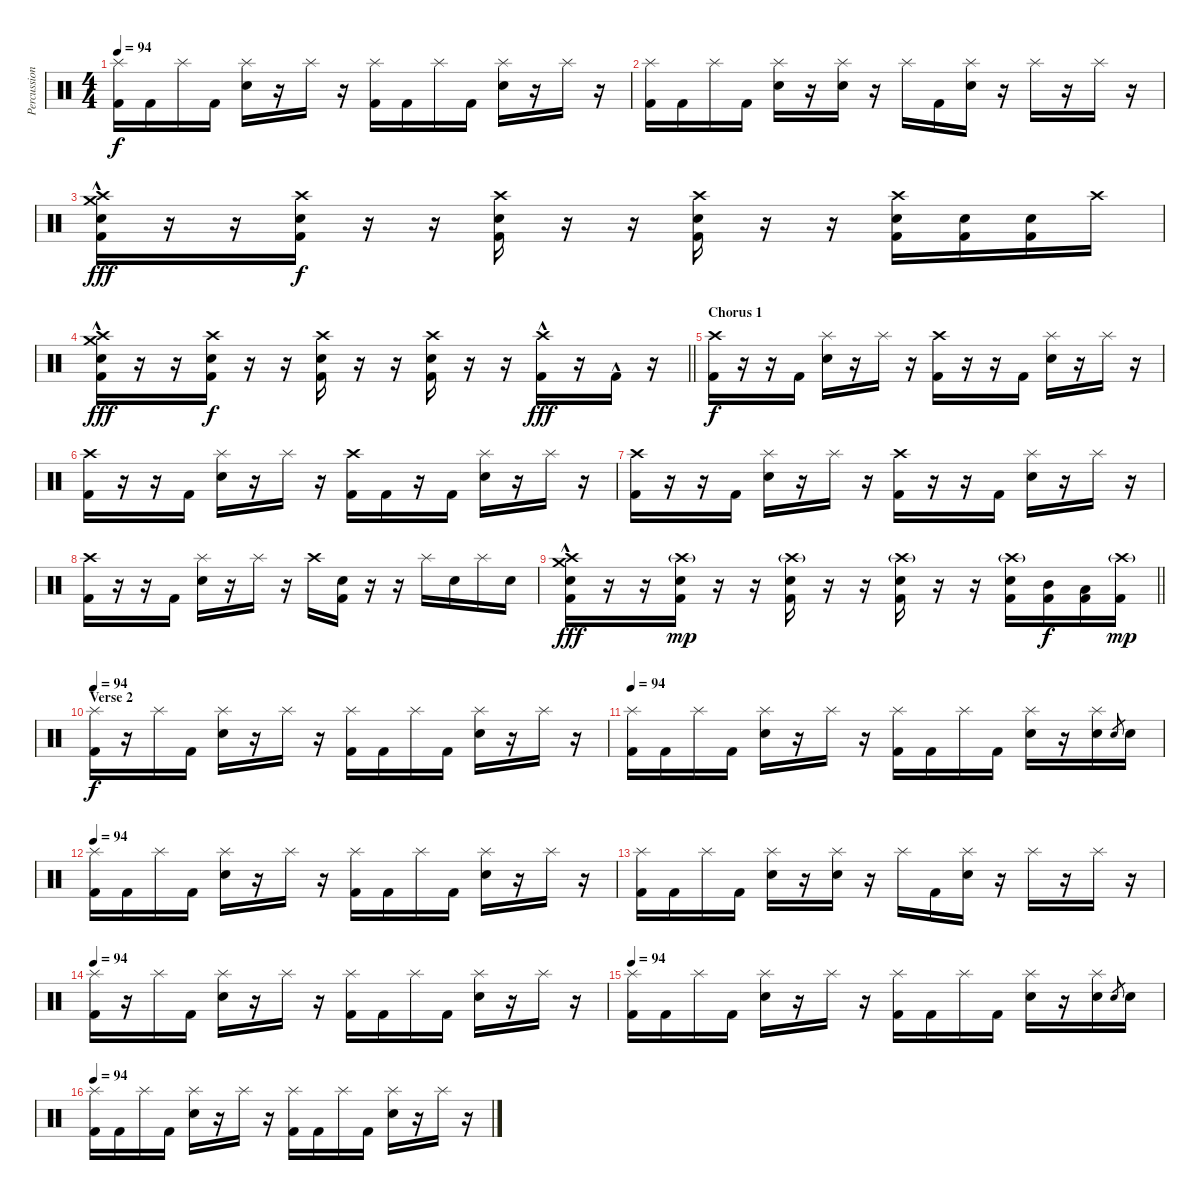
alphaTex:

\track ("Percussion" "Percussion") {instrument percussion}
\staff {score}
\articulation defaults
\ts (4 4)
\tempo 94
\clef neutral
\ks c
("Kick (hit) 2" "Splash (hit)").16{dy f} "Kick (hit) 2".16 "Splash (hit)".16 "Kick (hit) 2".16 ("Snare (hit) 2" "Splash (hit)").16 r.16 "Splash (hit)".16 r.16 ("Kick (hit) 2" "Splash (hit)").16 "Kick (hit) 2".16 "Splash (hit)".16 "Kick (hit) 2".16 ("Snare (hit) 2" "Splash (hit)").16 r.16 "Splash (hit)".16 r.16 |
("Kick (hit) 2" "Splash (hit)").16 "Kick (hit) 2".16 "Splash (hit)".16 "Kick (hit) 2".16 ("Snare (hit) 2" "Splash (hit)").16 r.16 ("Snare (hit) 2" "Splash (hit)").16 r.16 "Splash (hit)".16 "Kick (hit) 2".16 ("Snare (hit) 2" "Splash (hit)").16 r.16 "Splash (hit)".16 r.16 "Splash (hit)".16 r.16 |
("Kick (hit) 2" "Snare (hit) 2" "Crash medium (hit)"{hac} "Crash high (hit)"{hac}).16{dy fff} r.16 r.16 ("Kick (hit) 2" "Snare (hit) 2" "Crash high (hit)").16{dy f} r.16 r.16 ("Kick (hit) 2" "Snare (hit) 2" "Crash high (hit)").16 r.16 r.16 ("Kick (hit) 2" "Snare (hit) 2" "Crash high (hit)").16 r.16 r.16 ("Kick (hit) 2" "Snare (hit) 2" "Crash high (hit)").16 ("Kick (hit) 2" "Snare (hit) 2").16 ("Kick (hit) 2" "Snare (hit) 2").16 "Crash high (hit)".16 |
\barLineRight lightlight
("Kick (hit) 2" "Snare (hit) 2" "Crash medium (hit)"{hac} "Crash high (hit)"{hac}).16{dy fff} r.16 r.16 ("Kick (hit) 2" "Snare (hit) 2" "Crash high (hit)").16{dy f} r.16 r.16 ("Kick (hit) 2" "Snare (hit) 2" "Crash high (hit)").16 r.16 r.16 ("Kick (hit) 2" "Snare (hit) 2" "Crash high (hit)").16 r.16 r.16 ("Kick (hit) 2"{hac} "Crash high (hit)").16{dy fff} r.16 "Kick (hit) 2"{hac}.16 r.16 |
\section ("" "Chorus 1")
("Kick (hit) 2" "Crash high (hit)").16{dy f} r.16 r.16 "Kick (hit) 2".16 ("Snare (hit) 2" "Splash (hit)").16 r.16 "Splash (hit)".16 r.16 ("Kick (hit) 2" "Crash high (hit)").16 r.16 r.16 "Kick (hit) 2".16 ("Snare (hit) 2" "Splash (hit)").16 r.16 "Splash (hit)".16 r.16 |
("Kick (hit) 2" "Crash high (hit)").16 r.16 r.16 "Kick (hit) 2".16 ("Snare (hit) 2" "Splash (hit)").16 r.16 "Splash (hit)".16 r.16 ("Kick (hit) 2" "Crash high (hit)").16 "Kick (hit) 2".16 r.16 "Kick (hit) 2".16 ("Snare (hit) 2" "Splash (hit)").16 r.16 "Splash (hit)".16 r.16 |
("Kick (hit) 2" "Crash high (hit)").16 r.16 r.16 "Kick (hit) 2".16 ("Snare (hit) 2" "Splash (hit)").16 r.16 "Splash (hit)".16 r.16 ("Kick (hit) 2" "Crash high (hit)").16 r.16 r.16 "Kick (hit) 2".16 ("Snare (hit) 2" "Splash (hit)").16 r.16 "Splash (hit)".16 r.16 |
("Kick (hit) 2" "Crash high (hit)").16 r.16 r.16 "Kick (hit) 2".16 ("Snare (hit) 2" "Splash (hit)").16 r.16 "Splash (hit)".16 r.16 "Crash high (hit)".16 ("Kick (hit) 2" "Snare (hit) 2").16 r.16 r.16 "Splash (hit)".16 "Snare (hit) 2".16 "Splash (hit)".16 "Snare (hit) 2".16 |
\barLineRight lightlight
("Kick (hit) 2" "Snare (hit) 2" "Crash medium (hit)"{hac} "Crash high (hit)"{hac}).16{dy fff} r.16 r.16 ("Kick (hit) 2" "Snare (hit) 2" "Crash high (hit)"{g}).16{dy mp} r.16 r.16 ("Kick (hit) 2" "Snare (hit) 2" "Crash high (hit)"{g}).16 r.16 r.16 ("Kick (hit) 2" "Snare (hit) 2" "Crash high (hit)"{g}).16 r.16 r.16 ("Kick (hit) 2" "Snare (hit) 2" "Crash high (hit)"{g}).16 ("Kick (hit) 2" "Mid Tom (hit)").16{dy f} ("Kick (hit) 2" "Low Tom (hit)").16 ("Kick (hit) 2" "Crash high (hit)"{g}).16{dy mp} |
\section ("" "Verse 2")
\tempo 94
("Kick (hit) 2" "Splash (hit)").16{dy f} r.16 "Splash (hit)".16 "Kick (hit) 2".16 ("Snare (hit) 2" "Splash (hit)").16 r.16 "Splash (hit)".16 r.16 ("Kick (hit) 2" "Splash (hit)").16 "Kick (hit) 2".16 "Splash (hit)".16 "Kick (hit) 2".16 ("Snare (hit) 2" "Splash (hit)").16 r.16 "Splash (hit)".16 r.16 |
\tempo 94
("Kick (hit) 2" "Splash (hit)").16 "Kick (hit) 2".16 "Splash (hit)".16 "Kick (hit) 2".16 ("Snare (hit) 2" "Splash (hit)").16 r.16 "Splash (hit)".16 r.16 ("Kick (hit) 2" "Splash (hit)").16 "Kick (hit) 2".16 "Splash (hit)".16 "Kick (hit) 2".16 ("Snare (hit) 2" "Splash (hit)").16 r.16 ("Snare (hit) 2" "Splash (hit)").16 "Snare (hit) 2".8{gr} "Snare (hit) 2".16 |
\tempo 94
("Kick (hit) 2" "Splash (hit)").16 "Kick (hit) 2".16 "Splash (hit)".16 "Kick (hit) 2".16 ("Snare (hit) 2" "Splash (hit)").16 r.16 "Splash (hit)".16 r.16 ("Kick (hit) 2" "Splash (hit)").16 "Kick (hit) 2".16 "Splash (hit)".16 "Kick (hit) 2".16 ("Snare (hit) 2" "Splash (hit)").16 r.16 "Splash (hit)".16 r.16 |
("Kick (hit) 2" "Splash (hit)").16 "Kick (hit) 2".16 "Splash (hit)".16 "Kick (hit) 2".16 ("Snare (hit) 2" "Splash (hit)").16 r.16 ("Snare (hit) 2" "Splash (hit)").16 r.16 "Splash (hit)".16 "Kick (hit) 2".16 ("Snare (hit) 2" "Splash (hit)").16 r.16 "Splash (hit)".16 r.16 "Splash (hit)".16 r.16 |
\tempo 94
("Kick (hit) 2" "Splash (hit)").16 r.16 "Splash (hit)".16 "Kick (hit) 2".16 ("Snare (hit) 2" "Splash (hit)").16 r.16 "Splash (hit)".16 r.16 ("Kick (hit) 2" "Splash (hit)").16 "Kick (hit) 2".16 "Splash (hit)".16 "Kick (hit) 2".16 ("Snare (hit) 2" "Splash (hit)").16 r.16 "Splash (hit)".16 r.16 |
\tempo 94
("Kick (hit) 2" "Splash (hit)").16 "Kick (hit) 2".16 "Splash (hit)".16 "Kick (hit) 2".16 ("Snare (hit) 2" "Splash (hit)").16 r.16 "Splash (hit)".16 r.16 ("Kick (hit) 2" "Splash (hit)").16 "Kick (hit) 2".16 "Splash (hit)".16 "Kick (hit) 2".16 ("Snare (hit) 2" "Splash (hit)").16 r.16 ("Snare (hit) 2" "Splash (hit)").16 "Snare (hit) 2".8{gr} "Snare (hit) 2".16 |
\tempo 94
("Kick (hit) 2" "Splash (hit)").16 "Kick (hit) 2".16 "Splash (hit)".16 "Kick (hit) 2".16 ("Snare (hit) 2" "Splash (hit)").16 r.16 "Splash (hit)".16 r.16 ("Kick (hit) 2" "Splash (hit)").16 "Kick (hit) 2".16 "Splash (hit)".16 "Kick (hit) 2".16 ("Snare (hit) 2" "Splash (hit)").16 r.16 "Splash (hit)".16 r.16
